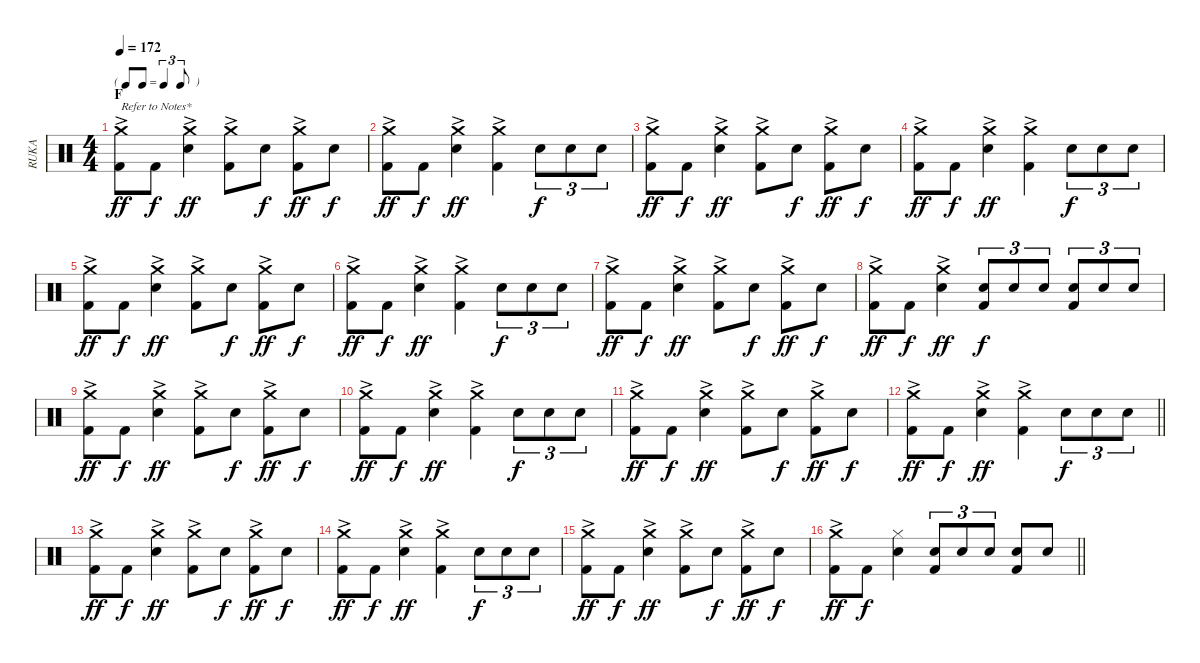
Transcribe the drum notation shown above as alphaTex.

\track ("RUKA" "RUKA") {instrument percussion}
\staff {score}
\articulation defaults
\ts (4 4)
\tf triplet8th
\section ("" "F")
\tempo 172
\clef neutral
\ks c
("Crash medium (hit)"{ac} "Kick (hit) 2").8{txt "Refer to Notes*" dy ff} "Kick (hit) 2".8{dy f} ("Crash medium (hit)"{ac} "Snare (hit) 2").4{dy ff} ("Crash medium (hit)"{ac} "Kick (hit) 2").8 "Snare (hit) 2".8{dy f} ("Crash medium (hit)"{ac} "Kick (hit) 2").8{dy ff} "Snare (hit) 2".8{dy f} |
("Crash medium (hit)"{ac} "Kick (hit) 2").8{dy ff} "Kick (hit) 2".8{dy f} ("Crash medium (hit)"{ac} "Snare (hit) 2").4{dy ff} ("Crash medium (hit)"{ac} "Kick (hit) 2").4 "Snare (hit) 2".8{tu (3 2) dy f} "Snare (hit) 2".8{tu (3 2)} "Snare (hit) 2".8{tu (3 2)} |
("Crash medium (hit)"{ac} "Kick (hit) 2").8{dy ff} "Kick (hit) 2".8{dy f} ("Crash medium (hit)"{ac} "Snare (hit) 2").4{dy ff} ("Crash medium (hit)"{ac} "Kick (hit) 2").8 "Snare (hit) 2".8{dy f} ("Crash medium (hit)"{ac} "Kick (hit) 2").8{dy ff} "Snare (hit) 2".8{dy f} |
("Crash medium (hit)"{ac} "Kick (hit) 2").8{dy ff} "Kick (hit) 2".8{dy f} ("Crash medium (hit)"{ac} "Snare (hit) 2").4{dy ff} ("Crash medium (hit)"{ac} "Kick (hit) 2").4 "Snare (hit) 2".8{tu (3 2) dy f} "Snare (hit) 2".8{tu (3 2)} "Snare (hit) 2".8{tu (3 2)} |
("Crash medium (hit)"{ac} "Kick (hit) 2").8{dy ff} "Kick (hit) 2".8{dy f} ("Crash medium (hit)"{ac} "Snare (hit) 2").4{dy ff} ("Crash medium (hit)"{ac} "Kick (hit) 2").8 "Snare (hit) 2".8{dy f} ("Crash medium (hit)"{ac} "Kick (hit) 2").8{dy ff} "Snare (hit) 2".8{dy f} |
("Crash medium (hit)"{ac} "Kick (hit) 2").8{dy ff} "Kick (hit) 2".8{dy f} ("Crash medium (hit)"{ac} "Snare (hit) 2").4{dy ff} ("Crash medium (hit)"{ac} "Kick (hit) 2").4 "Snare (hit) 2".8{tu (3 2) dy f} "Snare (hit) 2".8{tu (3 2)} "Snare (hit) 2".8{tu (3 2)} |
("Crash medium (hit)"{ac} "Kick (hit) 2").8{dy ff} "Kick (hit) 2".8{dy f} ("Crash medium (hit)"{ac} "Snare (hit) 2").4{dy ff} ("Crash medium (hit)"{ac} "Kick (hit) 2").8 "Snare (hit) 2".8{dy f} ("Crash medium (hit)"{ac} "Kick (hit) 2").8{dy ff} "Snare (hit) 2".8{dy f} |
("Crash medium (hit)"{ac} "Kick (hit) 2").8{dy ff} "Kick (hit) 2".8{dy f} ("Crash medium (hit)"{ac} "Snare (hit) 2").4{dy ff} ("Snare (hit) 2" "Kick (hit) 2").8{tu (3 2) dy f} "Snare (hit) 2".8{tu (3 2)} "Snare (hit) 2".8{tu (3 2)} ("Snare (hit) 2" "Kick (hit) 2").8{tu (3 2)} "Snare (hit) 2".8{tu (3 2)} "Snare (hit) 2".8{tu (3 2)} |
("Crash medium (hit)"{ac} "Kick (hit) 2").8{dy ff} "Kick (hit) 2".8{dy f} ("Crash medium (hit)"{ac} "Snare (hit) 2").4{dy ff} ("Crash medium (hit)"{ac} "Kick (hit) 2").8 "Snare (hit) 2".8{dy f} ("Crash medium (hit)"{ac} "Kick (hit) 2").8{dy ff} "Snare (hit) 2".8{dy f} |
("Crash medium (hit)"{ac} "Kick (hit) 2").8{dy ff} "Kick (hit) 2".8{dy f} ("Crash medium (hit)"{ac} "Snare (hit) 2").4{dy ff} ("Crash medium (hit)"{ac} "Kick (hit) 2").4 "Snare (hit) 2".8{tu (3 2) dy f} "Snare (hit) 2".8{tu (3 2)} "Snare (hit) 2".8{tu (3 2)} |
("Crash medium (hit)"{ac} "Kick (hit) 2").8{dy ff} "Kick (hit) 2".8{dy f} ("Crash medium (hit)"{ac} "Snare (hit) 2").4{dy ff} ("Crash medium (hit)"{ac} "Kick (hit) 2").8 "Snare (hit) 2".8{dy f} ("Crash medium (hit)"{ac} "Kick (hit) 2").8{dy ff} "Snare (hit) 2".8{dy f} |
\barLineRight lightlight
("Crash medium (hit)"{ac} "Kick (hit) 2").8{dy ff} "Kick (hit) 2".8{dy f} ("Crash medium (hit)"{ac} "Snare (hit) 2").4{dy ff} ("Crash medium (hit)"{ac} "Kick (hit) 2").4 "Snare (hit) 2".8{tu (3 2) dy f} "Snare (hit) 2".8{tu (3 2)} "Snare (hit) 2".8{tu (3 2)} |
("Crash medium (hit)"{ac} "Kick (hit) 2").8{dy ff} "Kick (hit) 2".8{dy f} ("Crash medium (hit)"{ac} "Snare (hit) 2").4{dy ff} ("Crash medium (hit)"{ac} "Kick (hit) 2").8 "Snare (hit) 2".8{dy f} ("Crash medium (hit)"{ac} "Kick (hit) 2").8{dy ff} "Snare (hit) 2".8{dy f} |
("Crash medium (hit)"{ac} "Kick (hit) 2").8{dy ff} "Kick (hit) 2".8{dy f} ("Crash medium (hit)"{ac} "Snare (hit) 2").4{dy ff} ("Crash medium (hit)"{ac} "Kick (hit) 2").4 "Snare (hit) 2".8{tu (3 2) dy f} "Snare (hit) 2".8{tu (3 2)} "Snare (hit) 2".8{tu (3 2)} |
("Crash medium (hit)"{ac} "Kick (hit) 2").8{dy ff} "Kick (hit) 2".8{dy f} ("Crash medium (hit)"{ac} "Snare (hit) 2").4{dy ff} ("Crash medium (hit)"{ac} "Kick (hit) 2").8 "Snare (hit) 2".8{dy f} ("Crash medium (hit)"{ac} "Kick (hit) 2").8{dy ff} "Snare (hit) 2".8{dy f} |
\barLineRight lightlight
("Crash medium (hit)"{ac} "Kick (hit) 2").8{dy ff} "Kick (hit) 2".8{dy f} ("Hi-Hat (closed)" "Snare (hit) 2").4 ("Snare (hit) 2" "Kick (hit) 2").8{tu (3 2)} "Snare (hit) 2".8{tu (3 2)} "Snare (hit) 2".8{tu (3 2)} ("Snare (hit) 2" "Kick (hit) 2").8 "Snare (hit) 2".8
